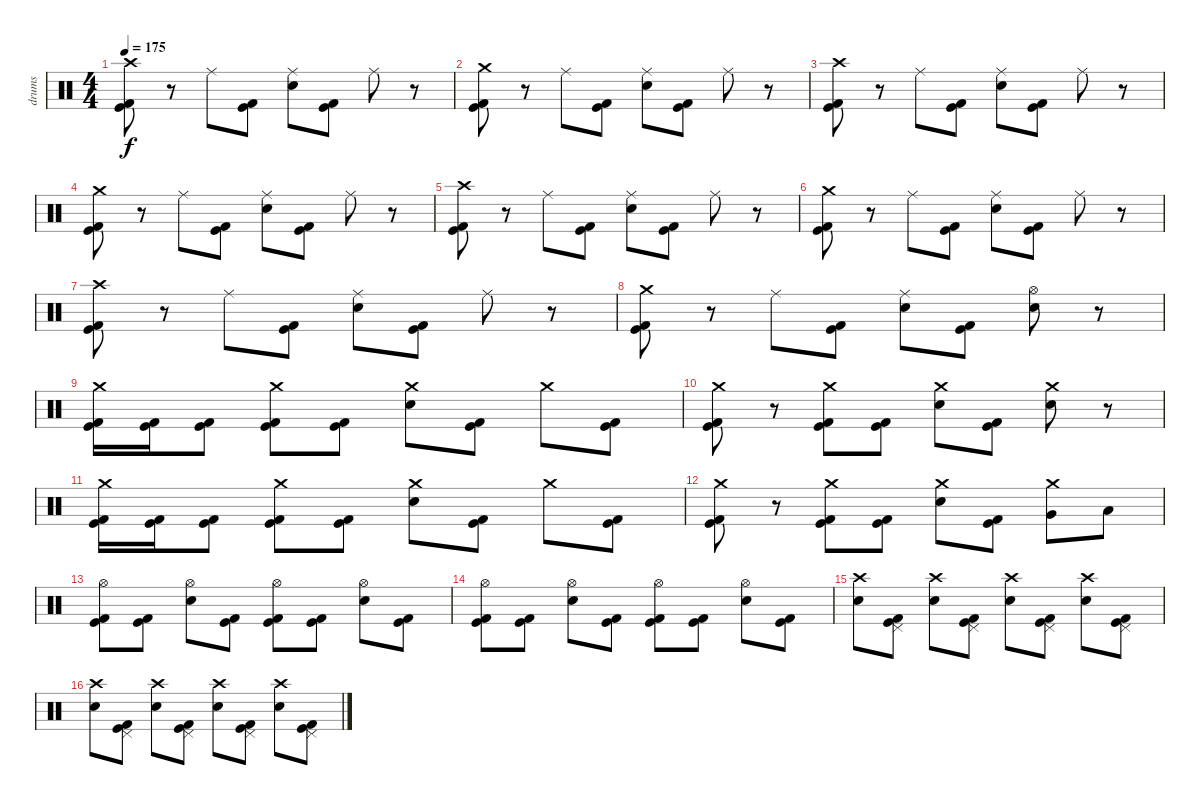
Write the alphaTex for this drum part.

\track ("drums" "drums") {instrument percussion}
\staff {score}
\articulation defaults
\ts (4 4)
\tempo 175
\clef neutral
\ks c
("Kick (hit)" "Kick (hit) 2" "Crash high (hit)").8{dy f} r.8 "Ride (middle)".8 ("Kick (hit)" "Kick (hit) 2").8 ("Electric Snare (hit)" "Ride (middle)").8 ("Kick (hit)" "Kick (hit) 2").8 "Ride (middle)".8 r.8 |
("Kick (hit)" "Kick (hit) 2" "Crash medium (hit)").8 r.8 "Ride (middle)".8 ("Kick (hit)" "Kick (hit) 2").8 ("Electric Snare (hit)" "Ride (middle)").8 ("Kick (hit)" "Kick (hit) 2").8 "Ride (middle)".8 r.8 |
("Kick (hit)" "Kick (hit) 2" "Crash high (hit)").8 r.8 "Ride (middle)".8 ("Kick (hit)" "Kick (hit) 2").8 ("Electric Snare (hit)" "Ride (middle)").8 ("Kick (hit)" "Kick (hit) 2").8 "Ride (middle)".8 r.8 |
("Kick (hit)" "Kick (hit) 2" "Crash medium (hit)").8 r.8 "Ride (middle)".8 ("Kick (hit)" "Kick (hit) 2").8 ("Electric Snare (hit)" "Ride (middle)").8 ("Kick (hit)" "Kick (hit) 2").8 "Ride (middle)".8 r.8 |
("Kick (hit)" "Kick (hit) 2" "Crash high (hit)").8 r.8 "Ride (middle)".8 ("Kick (hit)" "Kick (hit) 2").8 ("Electric Snare (hit)" "Ride (middle)").8 ("Kick (hit)" "Kick (hit) 2").8 "Ride (middle)".8 r.8 |
("Kick (hit)" "Kick (hit) 2" "Crash medium (hit)").8 r.8 "Ride (middle)".8 ("Kick (hit)" "Kick (hit) 2").8 ("Electric Snare (hit)" "Ride (middle)").8 ("Kick (hit)" "Kick (hit) 2").8 "Ride (middle)".8 r.8 |
("Kick (hit)" "Kick (hit) 2" "Crash high (hit)").8 r.8 "Ride (middle)".8 ("Kick (hit)" "Kick (hit) 2").8 ("Electric Snare (hit)" "Ride (middle)").8 ("Kick (hit)" "Kick (hit) 2").8 "Ride (middle)".8 r.8 |
("Kick (hit)" "Kick (hit) 2" "Crash medium (hit)").8 r.8 "Ride (middle)".8 ("Kick (hit)" "Kick (hit) 2").8 ("Electric Snare (hit)" "Ride (middle)").8 ("Kick (hit)" "Kick (hit) 2").8 ("Electric Snare (hit)" "Hi-Hat (open)").8 r.8 |
("Kick (hit)" "Kick (hit) 2" "Crash medium (hit)").16 ("Kick (hit)" "Kick (hit) 2").16 ("Kick (hit)" "Kick (hit) 2").8 ("Kick (hit)" "Kick (hit) 2" "Crash medium (hit)").8 ("Kick (hit)" "Kick (hit) 2").8 ("Electric Snare (hit)" "Crash medium (hit)").8 ("Kick (hit)" "Kick (hit) 2").8 "Crash medium (hit)".8 ("Kick (hit)" "Kick (hit) 2").8 |
("Kick (hit)" "Kick (hit) 2" "Crash medium (hit)").8 r.8 ("Kick (hit)" "Kick (hit) 2" "Crash medium (hit)").8 ("Kick (hit)" "Kick (hit) 2").8 ("Electric Snare (hit)" "Crash medium (hit)").8 ("Kick (hit)" "Kick (hit) 2").8 ("Electric Snare (hit)" "Crash medium (hit)").8 r.8 |
("Kick (hit)" "Kick (hit) 2" "Crash medium (hit)").16 ("Kick (hit)" "Kick (hit) 2").16 ("Kick (hit)" "Kick (hit) 2").8 ("Kick (hit)" "Kick (hit) 2" "Crash medium (hit)").8 ("Kick (hit)" "Kick (hit) 2").8 ("Electric Snare (hit)" "Crash medium (hit)").8 ("Kick (hit)" "Kick (hit) 2").8 "Crash medium (hit)".8 ("Kick (hit)" "Kick (hit) 2").8 |
("Kick (hit)" "Kick (hit) 2" "Crash medium (hit)").8 r.8 ("Kick (hit)" "Kick (hit) 2" "Crash medium (hit)").8 ("Kick (hit)" "Kick (hit) 2").8 ("Electric Snare (hit)" "Crash medium (hit)").8 ("Kick (hit)" "Kick (hit) 2").8 ("Very Low Tom (hit)" "Crash medium (hit)").8 "Low Floor Tom (hit)".8 |
("Kick (hit)" "Kick (hit) 2" "Hi-Hat (open)").8 ("Kick (hit)" "Kick (hit) 2").8 ("Electric Snare (hit)" "Hi-Hat (open)").8 ("Kick (hit)" "Kick (hit) 2").8 ("Kick (hit)" "Kick (hit) 2" "Hi-Hat (open)").8 ("Kick (hit)" "Kick (hit) 2").8 ("Electric Snare (hit)" "Hi-Hat (open)").8 ("Kick (hit)" "Kick (hit) 2").8 |
("Kick (hit)" "Kick (hit) 2" "Hi-Hat (open)").8 ("Kick (hit)" "Kick (hit) 2").8 ("Electric Snare (hit)" "Hi-Hat (open)").8 ("Kick (hit)" "Kick (hit) 2").8 ("Kick (hit)" "Kick (hit) 2" "Hi-Hat (open)").8 ("Kick (hit)" "Kick (hit) 2").8 ("Electric Snare (hit)" "Hi-Hat (open)").8 ("Kick (hit)" "Kick (hit) 2").8 |
("Electric Snare (hit)" "Crash high (hit)").8 ("Kick (hit)" "Kick (hit) 2" "Pedal Hi-Hat (hit)").8 ("Electric Snare (hit)" "Crash high (hit)").8 ("Kick (hit)" "Kick (hit) 2" "Pedal Hi-Hat (hit)").8 ("Electric Snare (hit)" "Crash high (hit)").8 ("Kick (hit)" "Kick (hit) 2" "Pedal Hi-Hat (hit)").8 ("Electric Snare (hit)" "Crash high (hit)").8 ("Kick (hit)" "Kick (hit) 2" "Pedal Hi-Hat (hit)").8 |
("Electric Snare (hit)" "Crash high (hit)").8 ("Kick (hit)" "Kick (hit) 2" "Pedal Hi-Hat (hit)").8 ("Electric Snare (hit)" "Crash high (hit)").8 ("Kick (hit)" "Kick (hit) 2" "Pedal Hi-Hat (hit)").8 ("Electric Snare (hit)" "Crash high (hit)").8 ("Kick (hit)" "Kick (hit) 2" "Pedal Hi-Hat (hit)").8 ("Electric Snare (hit)" "Crash high (hit)").8 ("Kick (hit)" "Kick (hit) 2" "Pedal Hi-Hat (hit)").8
